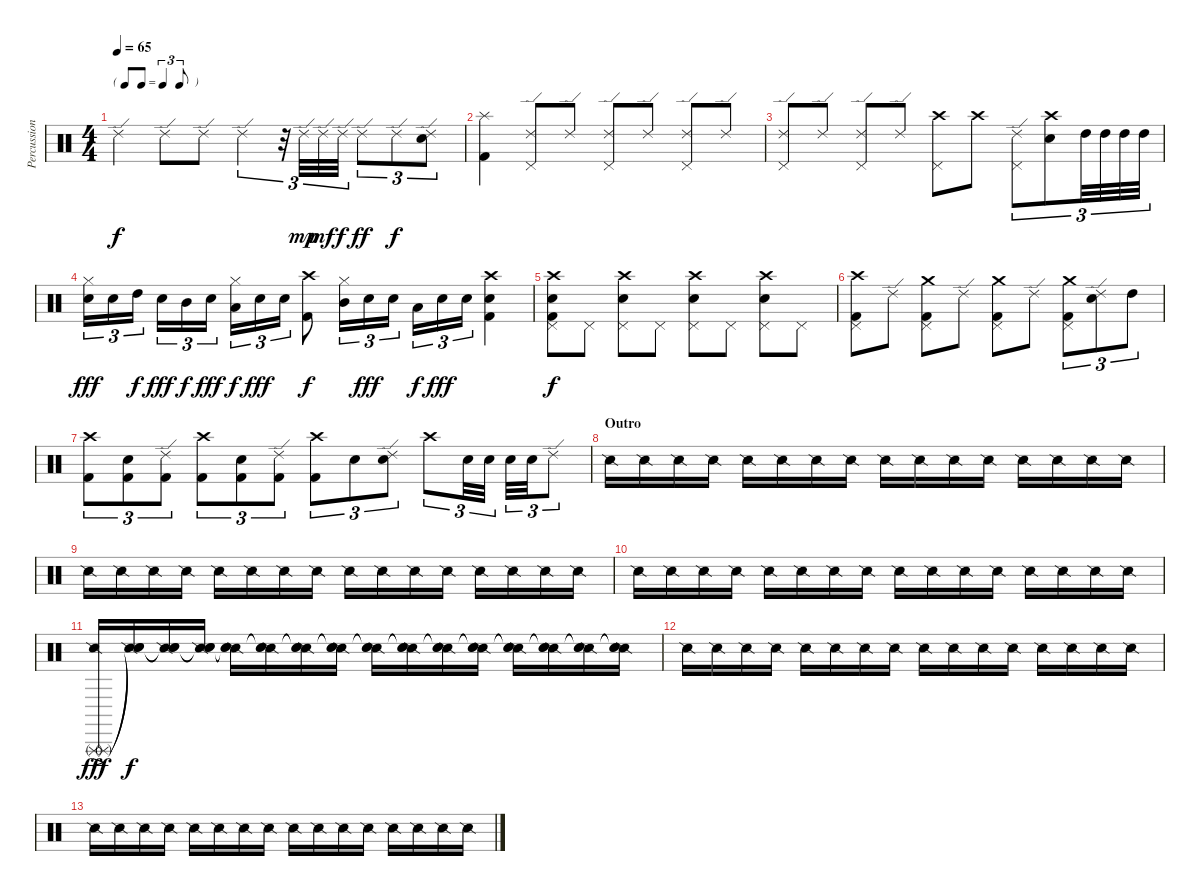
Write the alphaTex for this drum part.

\track ("Percussion" "Percussion") {instrument percussion}
\staff {score}
\articulation defaults
\ts (4 4)
\tf triplet8th
\tempo 65
\clef neutral
\ks c "Ride (edge) 2".4{dy f} "Ride (edge) 2".8 "Ride (edge) 2".8 "Ride (edge) 2".4{tu (3 2)}
r.32{tu (3 2)} "Ride (edge) 2".32{tu (3 2) dy mp} "Ride (edge) 2".32{tu (3 2) dy mf} "Ride (edge) 2".32{tu (3 2) dy f} "Ride (edge) 2".8{tu (3 2) dy ff} "Ride (edge) 2".8{tu (3 2) dy f} ("Ride (edge) 2" "Snare (hit) 2").8{tu (3 2)} |
("Splash (hit)" "Kick (hit) 2").4 ("Ride (edge) 2" "Pedal Hi-Hat (hit)").8 "Ride (edge) 2".8 ("Ride (edge) 2" "Pedal Hi-Hat (hit)").8 "Ride (edge) 2".8 ("Ride (edge) 2" "Pedal Hi-Hat (hit)").8 "Ride (edge) 2".8 |
("Ride (edge) 2" "Pedal Hi-Hat (hit)").8 "Ride (edge) 2".8 ("Ride (edge) 2" "Pedal Hi-Hat (hit)").8 "Ride (edge) 2".8 ("Crash high (hit)" "Pedal Hi-Hat (hit)").8 "Crash high (hit)".8 ("Ride (edge) 2" "Pedal Hi-Hat (hit)").8{tu (3 2)} ("Crash high (hit)" "Snare (hit) 2").8{tu (3 2)} "High Tom (hit)".32{tu (3 2)} "High Tom (hit)".32{tu (3 2)} "High Tom (hit)".32{tu (3 2)} "High Tom (hit)".32{tu (3 2)} |
("Hi-Hat (closed)" "Snare (hit) 2").16{tu (3 2) dy fff} "Snare (hit) 2".16{tu (3 2)} "High Tom (hit)".16{tu (3 2) dy f} "Snare (hit) 2".16{tu (3 2) dy fff} "Mid Tom (hit)".16{tu (3 2) dy f} "Snare (hit) 2".16{tu (3 2) dy fff} ("Hi-Hat (closed)" "Low Tom (hit)").16{tu (3 2) dy f} "Snare (hit) 2".16{tu (3 2) dy fff} "Snare (hit) 2".16{tu (3 2)} ("Crash high (hit)" "Kick (hit) 2").8{dy f} ("Hi-Hat (closed)" "Mid Tom (hit)").16{tu (3 2)} "Snare (hit) 2".16{tu (3 2) dy fff} "Snare (hit) 2".16{tu (3 2)} "Low Tom (hit)".16{tu (3 2) dy f} "Snare (hit) 2".16{tu (3 2) dy fff} "Snare (hit) 2".16{tu (3 2)} ("Crash high (hit)" "Snare (hit) 2" "Kick (hit) 2").4 |
("Crash high (hit)" "Pedal Hi-Hat (hit)" "Snare (hit) 2" "Kick (hit) 2").8{dy f} "Pedal Hi-Hat (hit)".8 ("Crash high (hit)" "Pedal Hi-Hat (hit)" "Snare (hit) 2").8 "Pedal Hi-Hat (hit)".8 ("Crash high (hit)" "Pedal Hi-Hat (hit)" "Snare (hit) 2").8 "Pedal Hi-Hat (hit)".8 ("Crash high (hit)" "Pedal Hi-Hat (hit)" "Snare (hit) 2").8 "Pedal Hi-Hat (hit)".8 |
("Crash high (hit)" "Pedal Hi-Hat (hit)" "Kick (hit) 2").8 "Ride (edge) 2".8 ("Crash medium (hit)" "Pedal Hi-Hat (hit)" "Kick (hit) 2").8 "Ride (edge) 2".8 ("Crash medium (hit)" "Pedal Hi-Hat (hit)" "Kick (hit) 2").8 "Ride (edge) 2".8 ("Crash medium (hit)" "Pedal Hi-Hat (hit)" "Kick (hit) 2").8{tu (3 2)} ("Ride (edge) 2" "Snare (hit) 2").8{tu (3 2)} "High Tom (hit)".8{tu (3 2)} |
("Crash high (hit)" "Kick (hit) 2").8{tu (3 2)} ("Snare (hit) 2" "Kick (hit) 2").8{tu (3 2)} ("Ride (edge) 2" "Kick (hit) 2").8{tu (3 2)} ("Crash high (hit)" "Kick (hit) 2").8{tu (3 2)} ("Snare (hit) 2" "Kick (hit) 2").8{tu (3 2)} ("Ride (edge) 2" "Kick (hit) 2").8{tu (3 2)} ("Crash high (hit)" "Kick (hit) 2").8{tu (3 2)} "Snare (hit) 2".8{tu (3 2)} ("Ride (edge) 2" "Snare (hit) 2").8{tu (3 2)} "Crash high (hit)".8{tu (3 2)} "Snare (hit) 2".32{tu (3 2)} "Snare (hit) 2".32{tu (3 2)} "Snare (hit) 2".32{tu (3 2)} "Snare (hit) 2".32{tu (3 2)} "Ride (edge) 2".8{tu (3 2)} |
\section ("" "Outro")
"Snare (side stick) 2".16{volume 4} "Snare (side stick) 2".16 "Snare (side stick) 2".16 "Snare (side stick) 2".16 "Snare (side stick) 2".16 "Snare (side stick) 2".16 "Snare (side stick) 2".16 "Snare (side stick) 2".16 "Snare (side stick) 2".16 "Snare (side stick) 2".16 "Snare (side stick) 2".16 "Snare (side stick) 2".16 "Snare (side stick) 2".16 "Snare (side stick) 2".16 "Snare (side stick) 2".16 "Snare (side stick) 2".16 |
"Snare (side stick) 2".16{volume 4} "Snare (side stick) 2".16 "Snare (side stick) 2".16 "Snare (side stick) 2".16 "Snare (side stick) 2".16 "Snare (side stick) 2".16 "Snare (side stick) 2".16 "Snare (side stick) 2".16 "Snare (side stick) 2".16 "Snare (side stick) 2".16 "Snare (side stick) 2".16 "Snare (side stick) 2".16 "Snare (side stick) 2".16 "Snare (side stick) 2".16 "Snare (side stick) 2".16 "Snare (side stick) 2".16 |
"Snare (side stick) 2".16{volume 4} "Snare (side stick) 2".16 "Snare (side stick) 2".16 "Snare (side stick) 2".16 "Snare (side stick) 2".16 "Snare (side stick) 2".16 "Snare (side stick) 2".16 "Snare (side stick) 2".16 "Snare (side stick) 2".16 "Snare (side stick) 2".16 "Snare (side stick) 2".16 "Snare (side stick) 2".16 "Snare (side stick) 2".16 "Snare (side stick) 2".16 "Snare (side stick) 2".16 "Snare (side stick) 2".16 |
("Snare (side stick) 2" "Triangle (rnute)"{ac} "Triangle (rnute)"{ac}).16{dy fff volume 16} ("Snare (side stick) 2" "Snare (hit)"{t} "Snare (hit)"{t}).16{dy f} ("Snare (side stick) 2" "Snare (hit)"{t} "Snare (hit)"{t}).16 ("Snare (side stick) 2" "Snare (hit)"{t} "Snare (hit)"{t}).16 ("Snare (side stick) 2" "Snare (hit)"{t} "Snare (hit)"{t}).16 ("Snare (side stick) 2" "Snare (hit)"{t} "Snare (hit)"{t}).16 ("Snare (side stick) 2" "Snare (hit)"{t} "Snare (hit)"{t}).16 ("Snare (side stick) 2" "Snare (hit)"{t} "Snare (hit)"{t}).16 ("Snare (side stick) 2" "Snare (hit)"{t} "Snare (hit)"{t}).16 ("Snare (side stick) 2" "Snare (hit)"{t} "Snare (hit)"{t}).16 ("Snare (side stick) 2" "Snare (hit)"{t} "Snare (hit)"{t}).16 ("Snare (side stick) 2" "Snare (hit)"{t} "Snare (hit)"{t}).16 ("Snare (side stick) 2" "Snare (hit)"{t} "Snare (hit)"{t}).16 ("Snare (side stick) 2" "Snare (hit)"{t} "Snare (hit)"{t}).16 ("Snare (side stick) 2" "Snare (hit)"{t} "Snare (hit)"{t}).16 ("Snare (side stick) 2" "Snare (hit)"{t} "Snare (hit)"{t}).16 |
"Snare (side stick) 2".16{volume 4} "Snare (side stick) 2".16 "Snare (side stick) 2".16 "Snare (side stick) 2".16 "Snare (side stick) 2".16 "Snare (side stick) 2".16 "Snare (side stick) 2".16 "Snare (side stick) 2".16 "Snare (side stick) 2".16 "Snare (side stick) 2".16 "Snare (side stick) 2".16 "Snare (side stick) 2".16 "Snare (side stick) 2".16 "Snare (side stick) 2".16 "Snare (side stick) 2".16 "Snare (side stick) 2".16 |
"Snare (side stick) 2".16{volume 4} "Snare (side stick) 2".16 "Snare (side stick) 2".16 "Snare (side stick) 2".16 "Snare (side stick) 2".16 "Snare (side stick) 2".16 "Snare (side stick) 2".16 "Snare (side stick) 2".16 "Snare (side stick) 2".16 "Snare (side stick) 2".16 "Snare (side stick) 2".16 "Snare (side stick) 2".16 "Snare (side stick) 2".16 "Snare (side stick) 2".16 "Snare (side stick) 2".16 "Snare (side stick) 2".16
